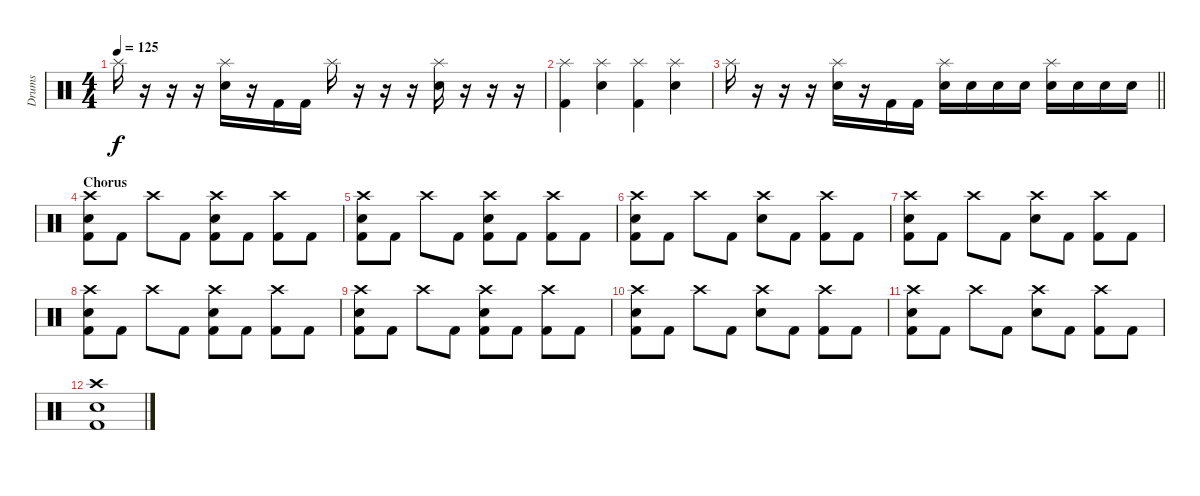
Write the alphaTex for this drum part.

\track ("Drums" "Drums") {instrument percussion}
\staff {score}
\articulation defaults
\ts (4 4)
\tempo 125
\clef neutral
\ks c "Splash (hit)".16{dy f}
r.16 r.16 r.16 ("Splash (hit)" "Electric Snare (hit)").16 r.16 "Kick (hit) 2".16 "Kick (hit) 2".16 "Splash (hit)".16 r.16 r.16 r.16 ("Splash (hit)" "Electric Snare (hit)").16 r.16 r.16 r.16 |
("Splash (hit)" "Kick (hit) 2").4 ("Splash (hit)" "Electric Snare (hit)").4 ("Splash (hit)" "Kick (hit) 2").4 ("Splash (hit)" "Electric Snare (hit)").4 |
\barLineRight lightlight "Splash (hit)".16
r.16 r.16 r.16 ("Splash (hit)" "Electric Snare (hit)").16 r.16 "Kick (hit) 2".16 "Kick (hit) 2".16 ("Splash (hit)" "Electric Snare (hit)").16 "Electric Snare (hit)".16 "Electric Snare (hit)".16 "Electric Snare (hit)".16 ("Splash (hit)" "Electric Snare (hit)").16 "Electric Snare (hit)".16 "Electric Snare (hit)".16 "Electric Snare (hit)".16 |
\section ("" "Chorus")
("Crash high (hit)" "Electric Snare (hit)" "Kick (hit) 2").8 "Kick (hit) 2".8 "Crash high (hit)".8 "Kick (hit) 2".8 ("Crash high (hit)" "Electric Snare (hit)" "Kick (hit) 2").8 "Kick (hit) 2".8 ("Crash high (hit)" "Kick (hit) 2").8 "Kick (hit) 2".8 |
("Crash high (hit)" "Electric Snare (hit)" "Kick (hit) 2").8 "Kick (hit) 2".8 "Crash high (hit)".8 "Kick (hit) 2".8 ("Crash high (hit)" "Electric Snare (hit)" "Kick (hit) 2").8 "Kick (hit) 2".8 ("Crash high (hit)" "Kick (hit) 2").8 "Kick (hit) 2".8 |
("Crash high (hit)" "Electric Snare (hit)" "Kick (hit) 2").8 "Kick (hit) 2".8 "Crash high (hit)".8 "Kick (hit) 2".8 ("Crash high (hit)" "Electric Snare (hit)").8 "Kick (hit) 2".8 ("Crash high (hit)" "Kick (hit) 2").8 "Kick (hit) 2".8 |
("Crash high (hit)" "Electric Snare (hit)" "Kick (hit) 2").8 "Kick (hit) 2".8 "Crash high (hit)".8 "Kick (hit) 2".8 ("Crash high (hit)" "Electric Snare (hit)").8 "Kick (hit) 2".8 ("Crash high (hit)" "Kick (hit) 2").8 "Kick (hit) 2".8 |
("Crash high (hit)" "Electric Snare (hit)" "Kick (hit) 2").8 "Kick (hit) 2".8 "Crash high (hit)".8 "Kick (hit) 2".8 ("Crash high (hit)" "Electric Snare (hit)" "Kick (hit) 2").8 "Kick (hit) 2".8 ("Crash high (hit)" "Kick (hit) 2").8 "Kick (hit) 2".8 |
("Crash high (hit)" "Electric Snare (hit)" "Kick (hit) 2").8 "Kick (hit) 2".8 "Crash high (hit)".8 "Kick (hit) 2".8 ("Crash high (hit)" "Electric Snare (hit)" "Kick (hit) 2").8 "Kick (hit) 2".8 ("Crash high (hit)" "Kick (hit) 2").8 "Kick (hit) 2".8 |
("Crash high (hit)" "Electric Snare (hit)" "Kick (hit) 2").8 "Kick (hit) 2".8 "Crash high (hit)".8 "Kick (hit) 2".8 ("Crash high (hit)" "Electric Snare (hit)").8 "Kick (hit) 2".8 ("Crash high (hit)" "Kick (hit) 2").8 "Kick (hit) 2".8 |
("Crash high (hit)" "Electric Snare (hit)" "Kick (hit) 2").8 "Kick (hit) 2".8 "Crash high (hit)".8 "Kick (hit) 2".8 ("Crash high (hit)" "Electric Snare (hit)").8 "Kick (hit) 2".8 ("Crash high (hit)" "Kick (hit) 2").8 "Kick (hit) 2".8 |
("Crash high (hit)" "Electric Snare (hit)" "Kick (hit) 2").1
